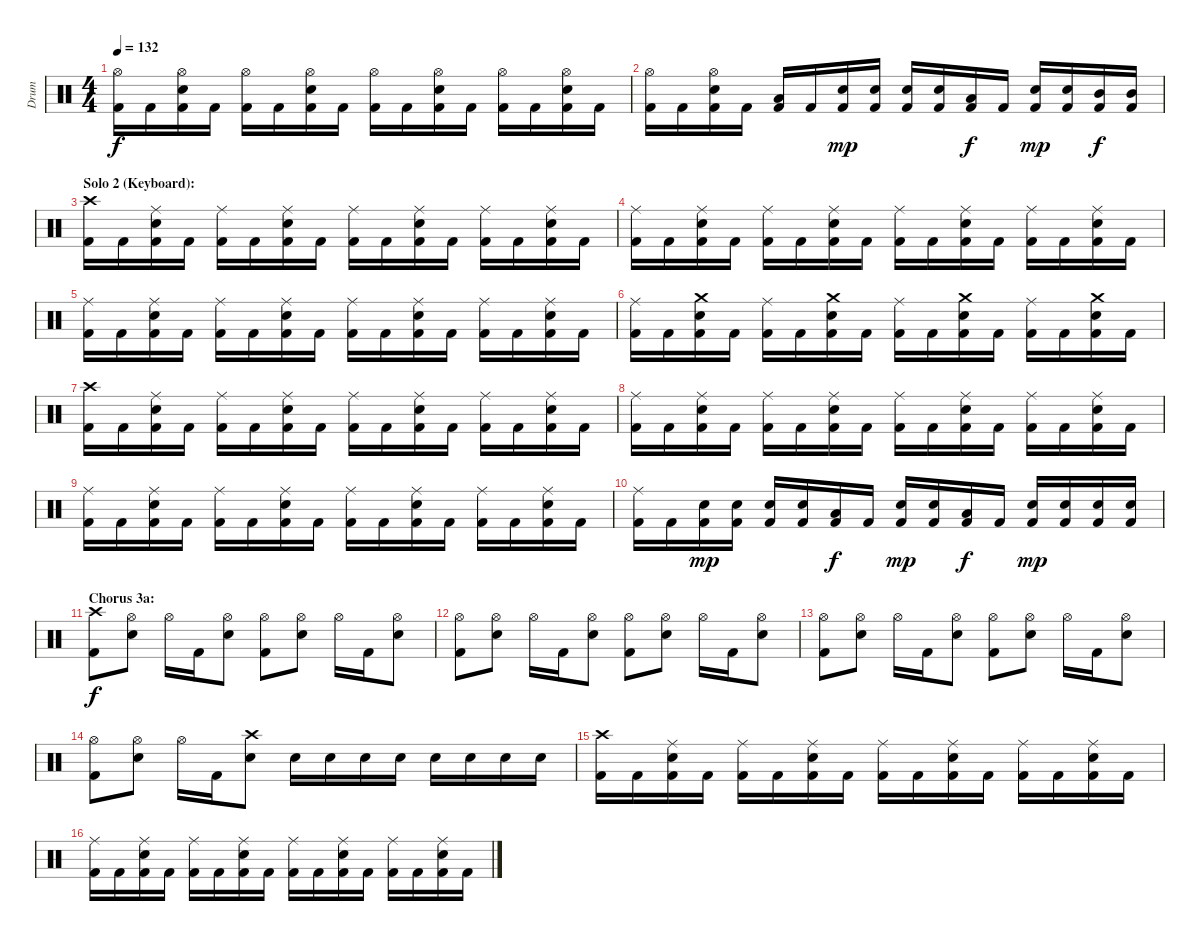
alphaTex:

\track ("Drum" "Drum") {instrument percussion}
\staff {score}
\articulation defaults
\ts (4 4)
\tempo 132
\clef neutral
\ks c
("Kick (hit) 2" "Hi-Hat (open)").16{dy f} "Kick (hit) 2".16 ("Kick (hit) 2" "Snare (hit) 2" "Hi-Hat (open)").16 "Kick (hit) 2".16 ("Kick (hit) 2" "Hi-Hat (open)").16 "Kick (hit) 2".16 ("Kick (hit) 2" "Snare (hit) 2" "Hi-Hat (open)").16 "Kick (hit) 2".16 ("Kick (hit) 2" "Hi-Hat (open)").16 "Kick (hit) 2".16 ("Kick (hit) 2" "Snare (hit) 2" "Hi-Hat (open)").16 "Kick (hit) 2".16 ("Kick (hit) 2" "Hi-Hat (open)").16 "Kick (hit) 2".16 ("Kick (hit) 2" "Snare (hit) 2" "Hi-Hat (open)").16 "Kick (hit) 2".16 |
("Kick (hit) 2" "Hi-Hat (open)").16 "Kick (hit) 2".16 ("Kick (hit) 2" "Snare (hit) 2" "Hi-Hat (open)").16 "Kick (hit) 2".16 ("Kick (hit) 2" "Low Tom (hit)").16 "Kick (hit) 2".16 ("Kick (hit) 2" "Snare (hit) 2").16{dy mp} ("Kick (hit) 2" "Snare (hit) 2").16 ("Kick (hit) 2" "Snare (hit) 2").16 ("Kick (hit) 2" "Snare (hit) 2").16 ("Kick (hit) 2" "Low Tom (hit)").16{dy f} "Kick (hit) 2".16 ("Kick (hit) 2" "Snare (hit) 2").16{dy mp} ("Kick (hit) 2" "Snare (hit) 2").16 ("Kick (hit) 2" "Mid Tom (hit)").16{dy f} ("Kick (hit) 2" "Mid Tom (hit)").16 |
\section ("" "Solo 2 (Keyboard):")
("Kick (hit) 2" "Crash high (hit)").16 "Kick (hit) 2".16 ("Kick (hit) 2" "Snare (hit) 2" "Ride (middle)").16 "Kick (hit) 2".16 ("Kick (hit) 2" "Ride (middle)").16 "Kick (hit) 2".16 ("Kick (hit) 2" "Snare (hit) 2" "Ride (middle)").16 "Kick (hit) 2".16 ("Kick (hit) 2" "Ride (middle)").16 "Kick (hit) 2".16 ("Kick (hit) 2" "Snare (hit) 2" "Ride (middle)").16 "Kick (hit) 2".16 ("Kick (hit) 2" "Ride (middle)").16 "Kick (hit) 2".16 ("Kick (hit) 2" "Snare (hit) 2" "Ride (middle)").16 "Kick (hit) 2".16 |
("Kick (hit) 2" "Ride (middle)").16 "Kick (hit) 2".16 ("Kick (hit) 2" "Snare (hit) 2" "Ride (middle)").16 "Kick (hit) 2".16 ("Kick (hit) 2" "Ride (middle)").16 "Kick (hit) 2".16 ("Kick (hit) 2" "Snare (hit) 2" "Ride (middle)").16 "Kick (hit) 2".16 ("Kick (hit) 2" "Ride (middle)").16 "Kick (hit) 2".16 ("Kick (hit) 2" "Snare (hit) 2" "Ride (middle)").16 "Kick (hit) 2".16 ("Kick (hit) 2" "Ride (middle)").16 "Kick (hit) 2".16 ("Kick (hit) 2" "Snare (hit) 2" "Ride (middle)").16 "Kick (hit) 2".16 |
("Kick (hit) 2" "Ride (middle)").16 "Kick (hit) 2".16 ("Kick (hit) 2" "Snare (hit) 2" "Ride (middle)").16 "Kick (hit) 2".16 ("Kick (hit) 2" "Ride (middle)").16 "Kick (hit) 2".16 ("Kick (hit) 2" "Snare (hit) 2" "Ride (middle)").16 "Kick (hit) 2".16 ("Kick (hit) 2" "Ride (middle)").16 "Kick (hit) 2".16 ("Kick (hit) 2" "Snare (hit) 2" "Ride (middle)").16 "Kick (hit) 2".16 ("Kick (hit) 2" "Ride (middle)").16 "Kick (hit) 2".16 ("Kick (hit) 2" "Snare (hit) 2" "Ride (middle)").16 "Kick (hit) 2".16 |
("Kick (hit) 2" "Ride (middle)").16 "Kick (hit) 2".16 ("Kick (hit) 2" "Snare (hit) 2" "Crash medium (hit)").16 "Kick (hit) 2".16 ("Kick (hit) 2" "Ride (middle)").16 "Kick (hit) 2".16 ("Kick (hit) 2" "Snare (hit) 2" "Crash medium (hit)").16 "Kick (hit) 2".16 ("Kick (hit) 2" "Ride (middle)").16 "Kick (hit) 2".16 ("Kick (hit) 2" "Snare (hit) 2" "Crash medium (hit)").16 "Kick (hit) 2".16 ("Kick (hit) 2" "Ride (middle)").16 "Kick (hit) 2".16 ("Kick (hit) 2" "Snare (hit) 2" "Crash medium (hit)").16 "Kick (hit) 2".16 |
("Kick (hit) 2" "Crash high (hit)").16 "Kick (hit) 2".16 ("Kick (hit) 2" "Snare (hit) 2" "Ride (middle)").16 "Kick (hit) 2".16 ("Kick (hit) 2" "Ride (middle)").16 "Kick (hit) 2".16 ("Kick (hit) 2" "Snare (hit) 2" "Ride (middle)").16 "Kick (hit) 2".16 ("Kick (hit) 2" "Ride (middle)").16 "Kick (hit) 2".16 ("Kick (hit) 2" "Snare (hit) 2" "Ride (middle)").16 "Kick (hit) 2".16 ("Kick (hit) 2" "Ride (middle)").16 "Kick (hit) 2".16 ("Kick (hit) 2" "Snare (hit) 2" "Ride (middle)").16 "Kick (hit) 2".16 |
("Kick (hit) 2" "Ride (middle)").16 "Kick (hit) 2".16 ("Kick (hit) 2" "Snare (hit) 2" "Ride (middle)").16 "Kick (hit) 2".16 ("Kick (hit) 2" "Ride (middle)").16 "Kick (hit) 2".16 ("Kick (hit) 2" "Snare (hit) 2" "Ride (middle)").16 "Kick (hit) 2".16 ("Kick (hit) 2" "Ride (middle)").16 "Kick (hit) 2".16 ("Kick (hit) 2" "Snare (hit) 2" "Ride (middle)").16 "Kick (hit) 2".16 ("Kick (hit) 2" "Ride (middle)").16 "Kick (hit) 2".16 ("Kick (hit) 2" "Snare (hit) 2" "Ride (middle)").16 "Kick (hit) 2".16 |
("Kick (hit) 2" "Ride (middle)").16 "Kick (hit) 2".16 ("Kick (hit) 2" "Snare (hit) 2" "Ride (middle)").16 "Kick (hit) 2".16 ("Kick (hit) 2" "Ride (middle)").16 "Kick (hit) 2".16 ("Kick (hit) 2" "Snare (hit) 2" "Ride (middle)").16 "Kick (hit) 2".16 ("Kick (hit) 2" "Ride (middle)").16 "Kick (hit) 2".16 ("Kick (hit) 2" "Snare (hit) 2" "Ride (middle)").16 "Kick (hit) 2".16 ("Kick (hit) 2" "Ride (middle)").16 "Kick (hit) 2".16 ("Kick (hit) 2" "Snare (hit) 2" "Ride (middle)").16 "Kick (hit) 2".16 |
("Kick (hit) 2" "Ride (middle)").16 "Kick (hit) 2".16 ("Kick (hit) 2" "Snare (hit) 2").16{dy mp} ("Kick (hit) 2" "Snare (hit) 2").16 ("Kick (hit) 2" "Snare (hit) 2").16 ("Kick (hit) 2" "Snare (hit) 2").16 ("Kick (hit) 2" "Low Tom (hit)").16{dy f} "Kick (hit) 2".16 ("Kick (hit) 2" "Snare (hit) 2").16{dy mp} ("Kick (hit) 2" "Snare (hit) 2").16 ("Kick (hit) 2" "Low Tom (hit)").16{dy f} "Kick (hit) 2".16 ("Kick (hit) 2" "Snare (hit) 2").16{dy mp} ("Kick (hit) 2" "Snare (hit) 2").16 ("Kick (hit) 2" "Snare (hit) 2").16 ("Kick (hit) 2" "Snare (hit) 2").16 |
\section ("" "Chorus 3a:")
("Kick (hit) 2" "Crash high (hit)").8{dy f} ("Snare (hit) 2" "Hi-Hat (open)").8 "Hi-Hat (open)".16 "Kick (hit) 2".16 ("Snare (hit) 2" "Hi-Hat (open)").8 ("Kick (hit) 2" "Hi-Hat (open)").8 ("Snare (hit) 2" "Hi-Hat (open)").8 "Hi-Hat (open)".16 "Kick (hit) 2".16 ("Snare (hit) 2" "Hi-Hat (open)").8 |
("Kick (hit) 2" "Hi-Hat (open)").8 ("Snare (hit) 2" "Hi-Hat (open)").8 "Hi-Hat (open)".16 "Kick (hit) 2".16 ("Snare (hit) 2" "Hi-Hat (open)").8 ("Kick (hit) 2" "Hi-Hat (open)").8 ("Snare (hit) 2" "Hi-Hat (open)").8 "Hi-Hat (open)".16 "Kick (hit) 2".16 ("Snare (hit) 2" "Hi-Hat (open)").8 |
("Kick (hit) 2" "Hi-Hat (open)").8 ("Snare (hit) 2" "Hi-Hat (open)").8 "Hi-Hat (open)".16 "Kick (hit) 2".16 ("Snare (hit) 2" "Hi-Hat (open)").8 ("Kick (hit) 2" "Hi-Hat (open)").8 ("Snare (hit) 2" "Hi-Hat (open)").8 "Hi-Hat (open)".16 "Kick (hit) 2".16 ("Snare (hit) 2" "Hi-Hat (open)").8 |
("Kick (hit) 2" "Hi-Hat (open)").8 ("Snare (hit) 2" "Hi-Hat (open)").8 "Hi-Hat (open)".16 "Kick (hit) 2".16 ("Snare (hit) 2" "Crash high (hit)").8 "Snare (hit) 2".16 "Snare (hit) 2".16 "Snare (hit) 2".16 "Snare (hit) 2".16 "Snare (hit) 2".16 "Snare (hit) 2".16 "Snare (hit) 2".16 "Snare (hit) 2".16 |
("Kick (hit) 2" "Crash high (hit)").16 "Kick (hit) 2".16 ("Kick (hit) 2" "Snare (hit) 2" "Ride (middle)").16 "Kick (hit) 2".16 ("Kick (hit) 2" "Ride (middle)").16 "Kick (hit) 2".16 ("Kick (hit) 2" "Snare (hit) 2" "Ride (middle)").16 "Kick (hit) 2".16 ("Kick (hit) 2" "Ride (middle)").16 "Kick (hit) 2".16 ("Kick (hit) 2" "Snare (hit) 2" "Ride (middle)").16 "Kick (hit) 2".16 ("Kick (hit) 2" "Ride (middle)").16 "Kick (hit) 2".16 ("Kick (hit) 2" "Snare (hit) 2" "Ride (middle)").16 "Kick (hit) 2".16 |
("Kick (hit) 2" "Ride (middle)").16 "Kick (hit) 2".16 ("Kick (hit) 2" "Snare (hit) 2" "Ride (middle)").16 "Kick (hit) 2".16 ("Kick (hit) 2" "Ride (middle)").16 "Kick (hit) 2".16 ("Kick (hit) 2" "Snare (hit) 2" "Ride (middle)").16 "Kick (hit) 2".16 ("Kick (hit) 2" "Ride (middle)").16 "Kick (hit) 2".16 ("Kick (hit) 2" "Snare (hit) 2" "Ride (middle)").16 "Kick (hit) 2".16 ("Kick (hit) 2" "Ride (middle)").16 "Kick (hit) 2".16 ("Kick (hit) 2" "Snare (hit) 2" "Ride (middle)").16 "Kick (hit) 2".16
